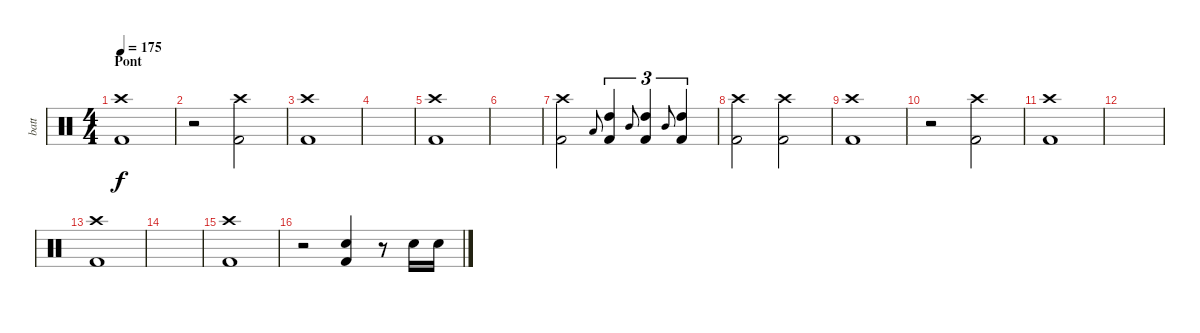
\track ("batt" "batt") {instrument percussion}
\staff {score}
\articulation defaults
\ts (4 4)
\section ("" "Pont")
\tempo 175
\clef neutral
\ks c
("Crash high (hit)" "Kick (hit) 2").1{dy f} |
r.2 ("Crash high (hit)" "Kick (hit) 2").2 |
("Crash high (hit)" "Kick (hit) 2").1 |
|
("Crash high (hit)" "Kick (hit) 2").1 |
|
("Crash high (hit)" "Kick (hit) 2").2 "Low Tom (hit)".8{gr onbeat} ("High Tom (hit)" "Kick (hit) 2").4{tu (3 2)} "Mid Tom (hit)".8{gr onbeat} ("High Tom (hit)" "Kick (hit) 2").4{tu (3 2)} "Mid Tom (hit)".8{gr onbeat} ("High Tom (hit)" "Kick (hit) 2").4{tu (3 2)} |
("Crash high (hit)" "Kick (hit) 2").2 ("Crash high (hit)" "Kick (hit) 2").2 |
("Crash high (hit)" "Kick (hit) 2").1 |
r.2 ("Crash high (hit)" "Kick (hit) 2").2 |
("Crash high (hit)" "Kick (hit) 2").1 |
|
("Crash high (hit)" "Kick (hit) 2").1 |
|
("Crash high (hit)" "Kick (hit) 2").1 |
r.2 ("Electric Snare (hit)" "Kick (hit) 2").4 r.8 "Electric Snare (hit)".16 "Electric Snare (hit)".16
